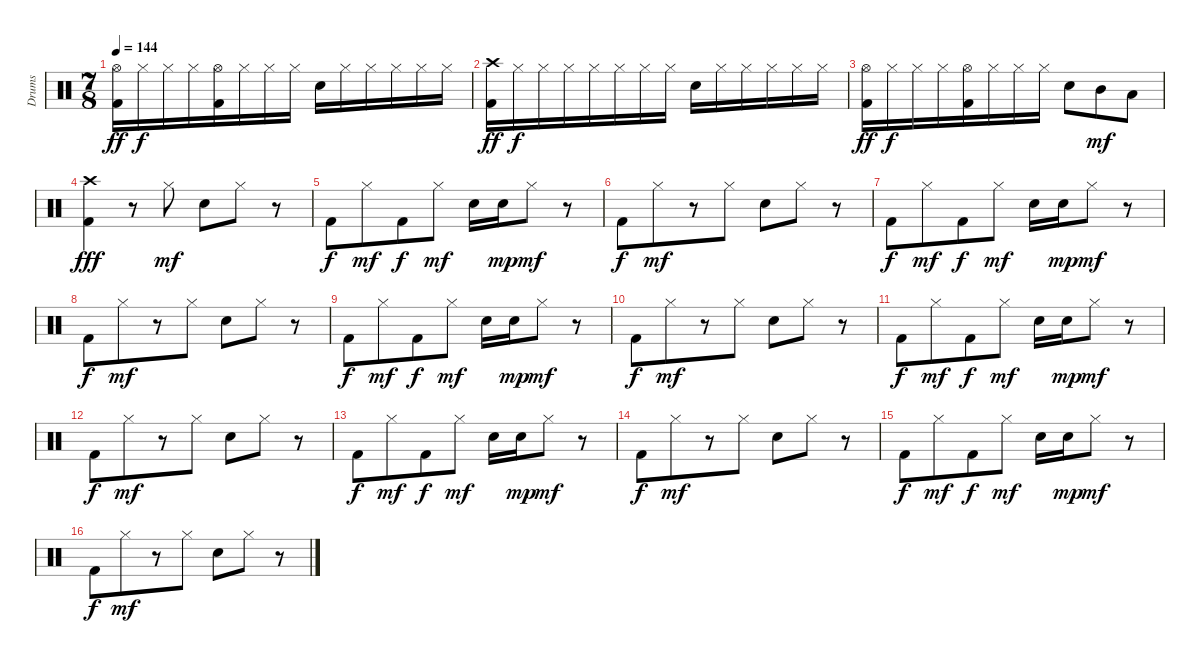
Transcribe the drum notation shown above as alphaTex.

\track ("Drums" "Drums") {instrument percussion}
\staff {score}
\articulation defaults
\ts (7 8)
\tempo 144
\clef neutral
\ks c
("Hi-Hat (open)" "Kick (hit) 2").16{dy ff} "Hi-Hat (closed)".16{dy f} "Hi-Hat (closed)".16 "Hi-Hat (closed)".16 ("Hi-Hat (open)" "Kick (hit) 2").16 "Hi-Hat (closed)".16 "Hi-Hat (closed)".16 "Hi-Hat (closed)".16 "Snare (hit) 2".16 "Hi-Hat (closed)".16 "Hi-Hat (closed)".16 "Hi-Hat (closed)".16 "Hi-Hat (closed)".16 "Hi-Hat (closed)".16 |
("Crash high (hit)" "Kick (hit) 2").16{dy ff} "Hi-Hat (closed)".16{dy f} "Hi-Hat (closed)".16 "Hi-Hat (closed)".16 "Hi-Hat (closed)".16 "Hi-Hat (closed)".16 "Hi-Hat (closed)".16 "Hi-Hat (closed)".16 "Snare (hit) 2".16 "Hi-Hat (closed)".16 "Hi-Hat (closed)".16 "Hi-Hat (closed)".16 "Hi-Hat (closed)".16 "Hi-Hat (closed)".16 |
("Hi-Hat (open)" "Kick (hit) 2").16{dy ff} "Hi-Hat (closed)".16{dy f} "Hi-Hat (closed)".16 "Hi-Hat (closed)".16 ("Hi-Hat (open)" "Kick (hit) 2").16 "Hi-Hat (closed)".16 "Hi-Hat (closed)".16 "Hi-Hat (closed)".16 "Snare (hit) 2".8 "Mid Tom (hit)".8{dy mf} "Low Tom (hit)".8 |
("Crash high (hit)" "Kick (hit) 2").4{dy fff} r.8 "Hi-Hat (closed)".8{dy mf} "Snare (hit) 2".8 "Hi-Hat (closed)".8 r.8 |
"Kick (hit) 2".8{dy f} "Hi-Hat (closed)".8{dy mf} "Kick (hit) 2".8{dy f} "Hi-Hat (closed)".8{dy mf} "Snare (hit) 2".16 "Snare (hit) 2".16{dy mp} "Hi-Hat (closed)".8{dy mf} r.8 |
"Kick (hit) 2".8{dy f} "Hi-Hat (closed)".8{dy mf} r.8 "Hi-Hat (closed)".8 "Snare (hit) 2".8 "Hi-Hat (closed)".8 r.8 |
"Kick (hit) 2".8{dy f} "Hi-Hat (closed)".8{dy mf} "Kick (hit) 2".8{dy f} "Hi-Hat (closed)".8{dy mf} "Snare (hit) 2".16 "Snare (hit) 2".16{dy mp} "Hi-Hat (closed)".8{dy mf} r.8 |
"Kick (hit) 2".8{dy f} "Hi-Hat (closed)".8{dy mf} r.8 "Hi-Hat (closed)".8 "Snare (hit) 2".8 "Hi-Hat (closed)".8 r.8 |
"Kick (hit) 2".8{dy f} "Hi-Hat (closed)".8{dy mf} "Kick (hit) 2".8{dy f} "Hi-Hat (closed)".8{dy mf} "Snare (hit) 2".16 "Snare (hit) 2".16{dy mp} "Hi-Hat (closed)".8{dy mf} r.8 |
"Kick (hit) 2".8{dy f} "Hi-Hat (closed)".8{dy mf} r.8 "Hi-Hat (closed)".8 "Snare (hit) 2".8 "Hi-Hat (closed)".8 r.8 |
"Kick (hit) 2".8{dy f} "Hi-Hat (closed)".8{dy mf} "Kick (hit) 2".8{dy f} "Hi-Hat (closed)".8{dy mf} "Snare (hit) 2".16 "Snare (hit) 2".16{dy mp} "Hi-Hat (closed)".8{dy mf} r.8 |
"Kick (hit) 2".8{dy f} "Hi-Hat (closed)".8{dy mf} r.8 "Hi-Hat (closed)".8 "Snare (hit) 2".8 "Hi-Hat (closed)".8 r.8 |
"Kick (hit) 2".8{dy f} "Hi-Hat (closed)".8{dy mf} "Kick (hit) 2".8{dy f} "Hi-Hat (closed)".8{dy mf} "Snare (hit) 2".16 "Snare (hit) 2".16{dy mp} "Hi-Hat (closed)".8{dy mf} r.8 |
"Kick (hit) 2".8{dy f} "Hi-Hat (closed)".8{dy mf} r.8 "Hi-Hat (closed)".8 "Snare (hit) 2".8 "Hi-Hat (closed)".8 r.8 |
"Kick (hit) 2".8{dy f} "Hi-Hat (closed)".8{dy mf} "Kick (hit) 2".8{dy f} "Hi-Hat (closed)".8{dy mf} "Snare (hit) 2".16 "Snare (hit) 2".16{dy mp} "Hi-Hat (closed)".8{dy mf} r.8 |
"Kick (hit) 2".8{dy f} "Hi-Hat (closed)".8{dy mf} r.8 "Hi-Hat (closed)".8 "Snare (hit) 2".8 "Hi-Hat (closed)".8 r.8
